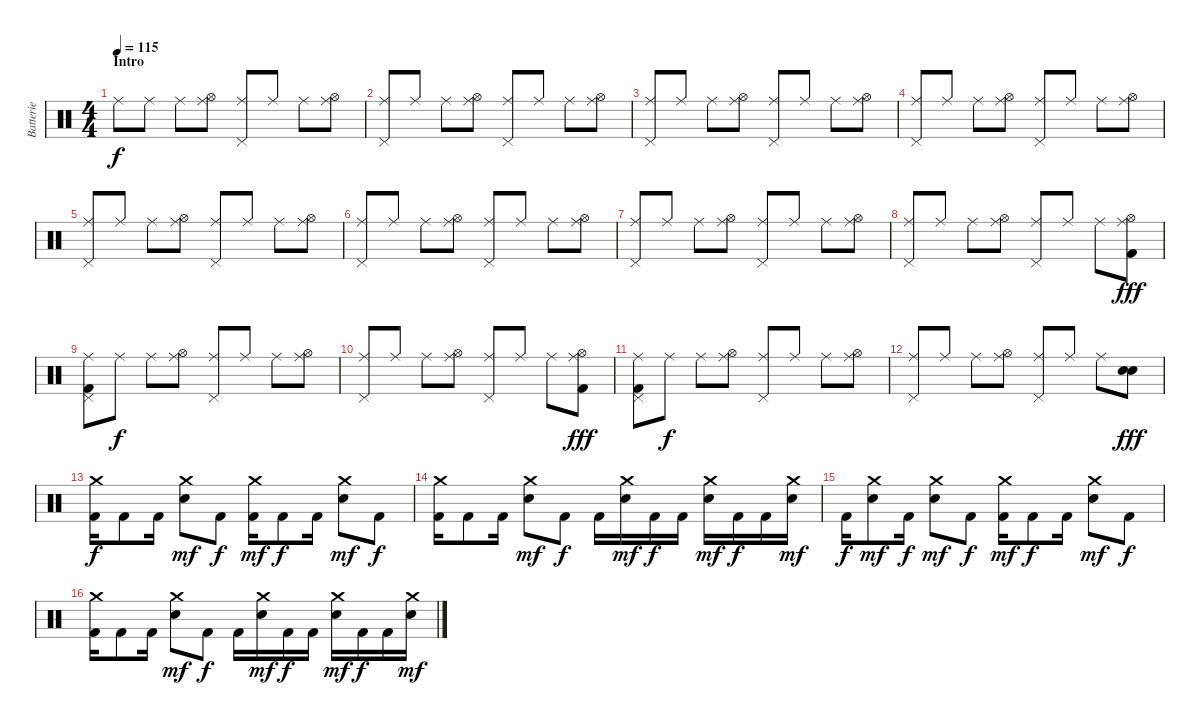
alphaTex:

\track ("Batterie" "Batterie") {instrument percussion}
\staff {score}
\articulation defaults
\ts (4 4)
\section ("" "Intro")
\tempo 115
\clef neutral
\ks c "Ride (middle)".8{dy f volume 7} "Ride (middle)".8 "Ride (middle)".8
("Ride (middle)" "Hi-Hat (open)").8 ("Ride (middle)" "Pedal Hi-Hat (hit)").8 "Ride (middle)".8 "Ride (middle)".8 ("Ride (middle)" "Hi-Hat (open)").8 |
("Ride (middle)" "Pedal Hi-Hat (hit)").8 "Ride (middle)".8 "Ride (middle)".8 ("Ride (middle)" "Hi-Hat (open)").8 ("Ride (middle)" "Pedal Hi-Hat (hit)").8 "Ride (middle)".8 "Ride (middle)".8 ("Ride (middle)" "Hi-Hat (open)").8 |
("Ride (middle)" "Pedal Hi-Hat (hit)").8 "Ride (middle)".8 "Ride (middle)".8 ("Ride (middle)" "Hi-Hat (open)").8 ("Ride (middle)" "Pedal Hi-Hat (hit)").8 "Ride (middle)".8 "Ride (middle)".8 ("Ride (middle)" "Hi-Hat (open)").8 |
("Ride (middle)" "Pedal Hi-Hat (hit)").8 "Ride (middle)".8 "Ride (middle)".8 ("Ride (middle)" "Hi-Hat (open)").8 ("Ride (middle)" "Pedal Hi-Hat (hit)").8 "Ride (middle)".8 "Ride (middle)".8 ("Ride (middle)" "Hi-Hat (open)").8 |
("Ride (middle)" "Pedal Hi-Hat (hit)").8 "Ride (middle)".8 "Ride (middle)".8 ("Ride (middle)" "Hi-Hat (open)").8 ("Ride (middle)" "Pedal Hi-Hat (hit)").8 "Ride (middle)".8 "Ride (middle)".8 ("Ride (middle)" "Hi-Hat (open)").8 |
("Ride (middle)" "Pedal Hi-Hat (hit)").8 "Ride (middle)".8 "Ride (middle)".8 ("Ride (middle)" "Hi-Hat (open)").8 ("Ride (middle)" "Pedal Hi-Hat (hit)").8 "Ride (middle)".8 "Ride (middle)".8 ("Ride (middle)" "Hi-Hat (open)").8 |
("Ride (middle)" "Pedal Hi-Hat (hit)").8 "Ride (middle)".8 "Ride (middle)".8 ("Ride (middle)" "Hi-Hat (open)").8 ("Ride (middle)" "Pedal Hi-Hat (hit)").8 "Ride (middle)".8 "Ride (middle)".8 ("Ride (middle)" "Hi-Hat (open)").8 |
("Ride (middle)" "Pedal Hi-Hat (hit)").8 "Ride (middle)".8 "Ride (middle)".8 ("Ride (middle)" "Hi-Hat (open)").8 ("Ride (middle)" "Pedal Hi-Hat (hit)").8 "Ride (middle)".8 "Ride (middle)".8 ("Ride (middle)" "Hi-Hat (open)" "Kick (hit) 2").8{dy fff} |
("Ride (middle)" "Pedal Hi-Hat (hit)" "Kick (hit) 2").8 "Ride (middle)".8{dy f} "Ride (middle)".8 ("Ride (middle)" "Hi-Hat (open)").8 ("Ride (middle)" "Pedal Hi-Hat (hit)").8 "Ride (middle)".8 "Ride (middle)".8 ("Ride (middle)" "Hi-Hat (open)").8 |
("Ride (middle)" "Pedal Hi-Hat (hit)").8 "Ride (middle)".8 "Ride (middle)".8 ("Ride (middle)" "Hi-Hat (open)").8 ("Ride (middle)" "Pedal Hi-Hat (hit)").8 "Ride (middle)".8 "Ride (middle)".8 ("Ride (middle)" "Hi-Hat (open)" "Kick (hit) 2").8{dy fff} |
("Ride (middle)" "Pedal Hi-Hat (hit)" "Kick (hit) 2").8 "Ride (middle)".8{dy f} "Ride (middle)".8 ("Ride (middle)" "Hi-Hat (open)").8 ("Ride (middle)" "Pedal Hi-Hat (hit)").8 "Ride (middle)".8 "Ride (middle)".8 ("Ride (middle)" "Hi-Hat (open)").8 |
("Ride (middle)" "Pedal Hi-Hat (hit)").8 "Ride (middle)".8 "Ride (middle)".8 ("Ride (middle)" "Hi-Hat (open)").8 ("Ride (middle)" "Pedal Hi-Hat (hit)").8 "Ride (middle)".8 "Ride (middle)".8 ("Electric Snare (hit)" "Electric Snare (hit)").8{dy fff volume 13} |
("Crash medium (hit)" "Kick (hit) 2").16{dy f} "Kick (hit) 2".8 "Kick (hit) 2".16 ("Crash medium (hit)" "Electric Snare (hit)").8{dy mf} "Kick (hit) 2".8{dy f} ("Crash medium (hit)" "Kick (hit) 2").16{dy mf} "Kick (hit) 2".8{dy f} "Kick (hit) 2".16 ("Crash medium (hit)" "Electric Snare (hit)").8{dy mf} "Kick (hit) 2".8{dy f} |
("Crash medium (hit)" "Kick (hit) 2").16 "Kick (hit) 2".8 "Kick (hit) 2".16 ("Crash medium (hit)" "Electric Snare (hit)").8{dy mf} "Kick (hit) 2".8{dy f} "Kick (hit) 2".16 ("Crash medium (hit)" "Electric Snare (hit)").16{dy mf} "Kick (hit) 2".16{dy f} "Kick (hit) 2".16 ("Crash medium (hit)" "Electric Snare (hit)").16{dy mf} "Kick (hit) 2".16{dy f} "Kick (hit) 2".16 ("Crash medium (hit)" "Electric Snare (hit)").16{dy mf} |
"Kick (hit) 2".16{dy f} ("Crash medium (hit)" "Electric Snare (hit)").8{dy mf} "Kick (hit) 2".16{dy f} ("Crash medium (hit)" "Electric Snare (hit)").8{dy mf} "Kick (hit) 2".8{dy f} ("Crash medium (hit)" "Kick (hit) 2").16{dy mf} "Kick (hit) 2".8{dy f} "Kick (hit) 2".16 ("Crash medium (hit)" "Electric Snare (hit)").8{dy mf} "Kick (hit) 2".8{dy f} |
("Crash medium (hit)" "Kick (hit) 2").16 "Kick (hit) 2".8 "Kick (hit) 2".16 ("Crash medium (hit)" "Electric Snare (hit)").8{dy mf} "Kick (hit) 2".8{dy f} "Kick (hit) 2".16 ("Crash medium (hit)" "Electric Snare (hit)").16{dy mf} "Kick (hit) 2".16{dy f} "Kick (hit) 2".16 ("Crash medium (hit)" "Electric Snare (hit)").16{dy mf} "Kick (hit) 2".16{dy f} "Kick (hit) 2".16 ("Crash medium (hit)" "Electric Snare (hit)").16{dy mf}
